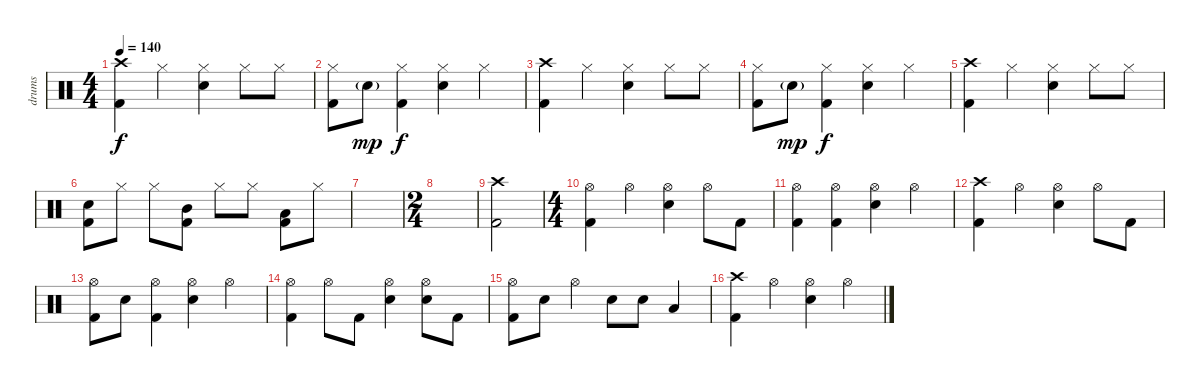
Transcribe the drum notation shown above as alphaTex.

\track ("drums" "drums") {instrument percussion}
\staff {score}
\articulation defaults
\ts (4 4)
\tempo 140
\clef neutral
\ks c
("Crash high (hit)" "Kick (hit) 2").4{dy f} "Hi-Hat (closed)".4 ("Snare (hit) 2" "Hi-Hat (closed)").4 "Hi-Hat (closed)".8 "Hi-Hat (closed)".8 |
("Hi-Hat (closed)" "Kick (hit) 2").8 "Snare (hit) 2"{g}.8{dy mp} ("Kick (hit) 2" "Hi-Hat (closed)").4{dy f} ("Snare (hit) 2" "Hi-Hat (closed)").4 "Hi-Hat (closed)".4 |
("Crash high (hit)" "Kick (hit) 2").4 "Hi-Hat (closed)".4 ("Snare (hit) 2" "Hi-Hat (closed)").4 "Hi-Hat (closed)".8 "Hi-Hat (closed)".8 |
("Hi-Hat (closed)" "Kick (hit) 2").8 "Snare (hit) 2"{g}.8{dy mp} ("Kick (hit) 2" "Hi-Hat (closed)").4{dy f} ("Snare (hit) 2" "Hi-Hat (closed)").4 "Hi-Hat (closed)".4 |
("Crash high (hit)" "Kick (hit) 2").4 "Hi-Hat (closed)".4 ("Snare (hit) 2" "Hi-Hat (closed)").4 "Hi-Hat (closed)".8 "Hi-Hat (closed)".8 |
("Snare (hit) 2" "Kick (hit) 2").8 "Hi-Hat (closed)".8 "Hi-Hat (closed)".8 ("Mid Tom (hit)" "Kick (hit) 2").8 "Hi-Hat (closed)".8 "Hi-Hat (closed)".8 ("Low Tom (hit)" "Kick (hit) 2").8 "Hi-Hat (closed)".8 |
|
\ts (2 4)
|
("Kick (hit) 2" "Crash high (hit)").2{volume 16} |
\ts (4 4)
("Hi-Hat (open)" "Kick (hit) 2").4 "Hi-Hat (open)".4 ("Snare (hit) 2" "Hi-Hat (open)").4 "Hi-Hat (open)".8 "Kick (hit) 2".8 |
("Kick (hit) 2" "Hi-Hat (open)").4 ("Kick (hit) 2" "Hi-Hat (open)").4 ("Snare (hit) 2" "Hi-Hat (open)").4 "Hi-Hat (open)".4 |
("Crash high (hit)" "Kick (hit) 2").4 "Hi-Hat (open)".4 ("Snare (hit) 2" "Hi-Hat (open)").4 "Hi-Hat (open)".8 "Kick (hit) 2".8 |
("Kick (hit) 2" "Hi-Hat (open)").8 "Snare (hit) 2".8 ("Kick (hit) 2" "Hi-Hat (open)").4 ("Snare (hit) 2" "Hi-Hat (open)").4 "Hi-Hat (open)".4 |
("Kick (hit) 2" "Hi-Hat (open)").4 "Hi-Hat (open)".8 "Kick (hit) 2".8 ("Snare (hit) 2" "Hi-Hat (open)").4 ("Snare (hit) 2" "Hi-Hat (open)").8 "Kick (hit) 2".8 |
("Kick (hit) 2" "Hi-Hat (open)").8 "Snare (hit) 2".8 "Hi-Hat (open)".4 "Snare (hit) 2".8 "Snare (hit) 2".8 "Low Tom (hit)".4 |
("Crash high (hit)" "Kick (hit) 2").4 "Hi-Hat (open)".4 ("Snare (hit) 2" "Hi-Hat (open)").4 "Hi-Hat (open)".4
